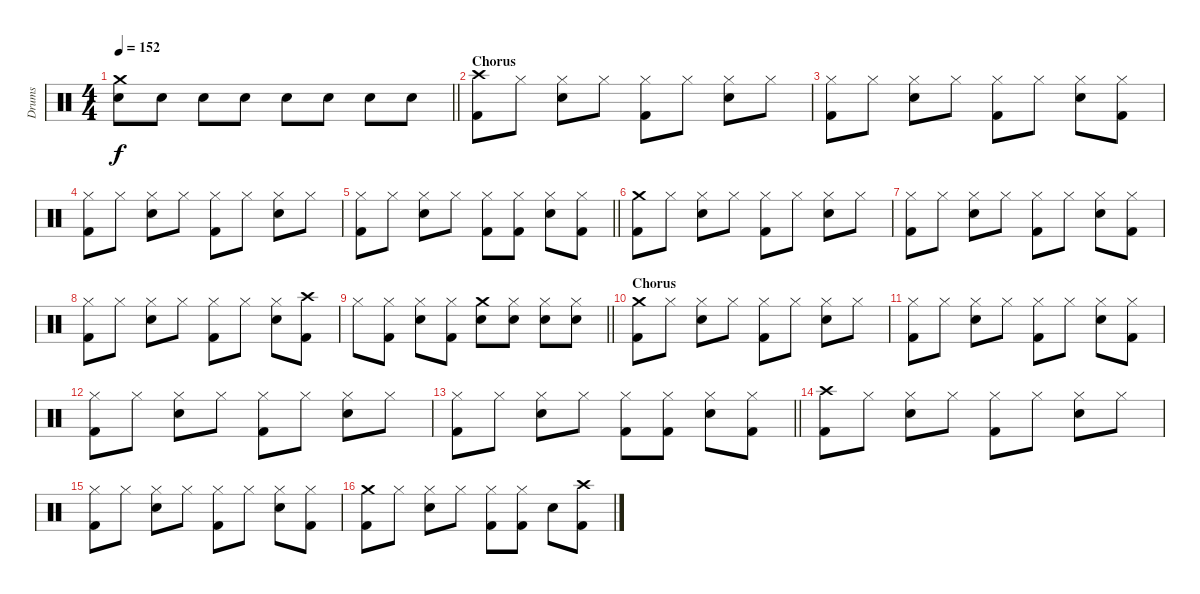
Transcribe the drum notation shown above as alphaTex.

\track ("Drums" "Drums") {instrument percussion}
\staff
\articulation defaults
\ts (4 4)
\tempo 152
\clef neutral
\barLineRight lightlight
\ks c
("Crash medium (hit)" "Electric Snare (hit)").8{dy f} "Electric Snare (hit)".8 "Electric Snare (hit)".8 "Electric Snare (hit)".8 "Electric Snare (hit)".8 "Electric Snare (hit)".8 "Electric Snare (hit)".8 "Electric Snare (hit)".8 |
\section ("" "Chorus")
("Crash high (hit)" "Kick (hit) 2").8 "Hi-Hat (closed)".8 ("Hi-Hat (closed)" "Electric Snare (hit)").8 "Hi-Hat (closed)".8 ("Hi-Hat (closed)" "Kick (hit) 2").8 "Hi-Hat (closed)".8 ("Hi-Hat (closed)" "Electric Snare (hit)").8 "Hi-Hat (closed)".8 |
("Hi-Hat (closed)" "Kick (hit) 2").8 "Hi-Hat (closed)".8 ("Hi-Hat (closed)" "Electric Snare (hit)").8 "Hi-Hat (closed)".8 ("Hi-Hat (closed)" "Kick (hit) 2").8 "Hi-Hat (closed)".8 ("Hi-Hat (closed)" "Electric Snare (hit)").8 ("Hi-Hat (closed)" "Kick (hit) 2").8 |
("Hi-Hat (closed)" "Kick (hit) 2").8 "Hi-Hat (closed)".8 ("Hi-Hat (closed)" "Electric Snare (hit)").8 "Hi-Hat (closed)".8 ("Hi-Hat (closed)" "Kick (hit) 2").8 "Hi-Hat (closed)".8 ("Hi-Hat (closed)" "Electric Snare (hit)").8 "Hi-Hat (closed)".8 |
\barLineRight lightlight
("Hi-Hat (closed)" "Kick (hit) 2").8 "Hi-Hat (closed)".8 ("Hi-Hat (closed)" "Electric Snare (hit)").8 "Hi-Hat (closed)".8 ("Hi-Hat (closed)" "Kick (hit) 2").8 ("Hi-Hat (closed)" "Kick (hit) 2").8 ("Hi-Hat (closed)" "Electric Snare (hit)").8 ("Hi-Hat (closed)" "Kick (hit) 2").8 |
("Crash medium (hit)" "Kick (hit) 2").8 "Hi-Hat (closed)".8 ("Hi-Hat (closed)" "Electric Snare (hit)").8 "Hi-Hat (closed)".8 ("Hi-Hat (closed)" "Kick (hit) 2").8 "Hi-Hat (closed)".8 ("Hi-Hat (closed)" "Electric Snare (hit)").8 "Hi-Hat (closed)".8 |
("Hi-Hat (closed)" "Kick (hit) 2").8 "Hi-Hat (closed)".8 ("Hi-Hat (closed)" "Electric Snare (hit)").8 "Hi-Hat (closed)".8 ("Hi-Hat (closed)" "Kick (hit) 2").8 "Hi-Hat (closed)".8 ("Hi-Hat (closed)" "Electric Snare (hit)").8 ("Hi-Hat (closed)" "Kick (hit) 2").8 |
("Hi-Hat (closed)" "Kick (hit) 2").8 "Hi-Hat (closed)".8 ("Hi-Hat (closed)" "Electric Snare (hit)").8 "Hi-Hat (closed)".8 ("Hi-Hat (closed)" "Kick (hit) 2").8 "Hi-Hat (closed)".8 ("Hi-Hat (closed)" "Electric Snare (hit)").8 ("Crash high (hit)" "Kick (hit) 2").8 |
\barLineRight lightlight "Hi-Hat (closed)".8
("Hi-Hat (closed)" "Kick (hit) 2").8 ("Hi-Hat (closed)" "Electric Snare (hit)").8 ("Hi-Hat (closed)" "Kick (hit) 2").8 ("Crash medium (hit)" "Electric Snare (hit)").8 ("Hi-Hat (closed)" "Electric Snare (hit)").8 ("Hi-Hat (closed)" "Electric Snare (hit)").8 ("Hi-Hat (closed)" "Electric Snare (hit)").8 |
\section ("" "Chorus")
("Crash medium (hit)" "Kick (hit) 2").8 "Hi-Hat (closed)".8 ("Hi-Hat (closed)" "Electric Snare (hit)").8 "Hi-Hat (closed)".8 ("Hi-Hat (closed)" "Kick (hit) 2").8 "Hi-Hat (closed)".8 ("Hi-Hat (closed)" "Electric Snare (hit)").8 "Hi-Hat (closed)".8 |
("Hi-Hat (closed)" "Kick (hit) 2").8 "Hi-Hat (closed)".8 ("Hi-Hat (closed)" "Electric Snare (hit)").8 "Hi-Hat (closed)".8 ("Hi-Hat (closed)" "Kick (hit) 2").8 "Hi-Hat (closed)".8 ("Hi-Hat (closed)" "Electric Snare (hit)").8 ("Hi-Hat (closed)" "Kick (hit) 2").8 |
("Hi-Hat (closed)" "Kick (hit) 2").8 "Hi-Hat (closed)".8 ("Hi-Hat (closed)" "Electric Snare (hit)").8 "Hi-Hat (closed)".8 ("Hi-Hat (closed)" "Kick (hit) 2").8 "Hi-Hat (closed)".8 ("Hi-Hat (closed)" "Electric Snare (hit)").8 "Hi-Hat (closed)".8 |
\barLineRight lightlight
("Hi-Hat (closed)" "Kick (hit) 2").8 "Hi-Hat (closed)".8 ("Hi-Hat (closed)" "Electric Snare (hit)").8 "Hi-Hat (closed)".8 ("Hi-Hat (closed)" "Kick (hit) 2").8 ("Hi-Hat (closed)" "Kick (hit) 2").8 ("Hi-Hat (closed)" "Electric Snare (hit)").8 ("Hi-Hat (closed)" "Kick (hit) 2").8 |
("Crash high (hit)" "Kick (hit) 2").8 "Hi-Hat (closed)".8 ("Hi-Hat (closed)" "Electric Snare (hit)").8 "Hi-Hat (closed)".8 ("Hi-Hat (closed)" "Kick (hit) 2").8 "Hi-Hat (closed)".8 ("Hi-Hat (closed)" "Electric Snare (hit)").8 "Hi-Hat (closed)".8 |
("Hi-Hat (closed)" "Kick (hit) 2").8 "Hi-Hat (closed)".8 ("Hi-Hat (closed)" "Electric Snare (hit)").8 "Hi-Hat (closed)".8 ("Hi-Hat (closed)" "Kick (hit) 2").8 "Hi-Hat (closed)".8 ("Hi-Hat (closed)" "Electric Snare (hit)").8 ("Hi-Hat (closed)" "Kick (hit) 2").8 |
("Crash medium (hit)" "Kick (hit) 2").8 "Hi-Hat (closed)".8 ("Hi-Hat (closed)" "Electric Snare (hit)").8 "Hi-Hat (closed)".8 ("Hi-Hat (closed)" "Kick (hit) 2").8 ("Hi-Hat (closed)" "Kick (hit) 2").8 "Electric Snare (hit)".8 ("Crash high (hit)" "Kick (hit) 2").8
